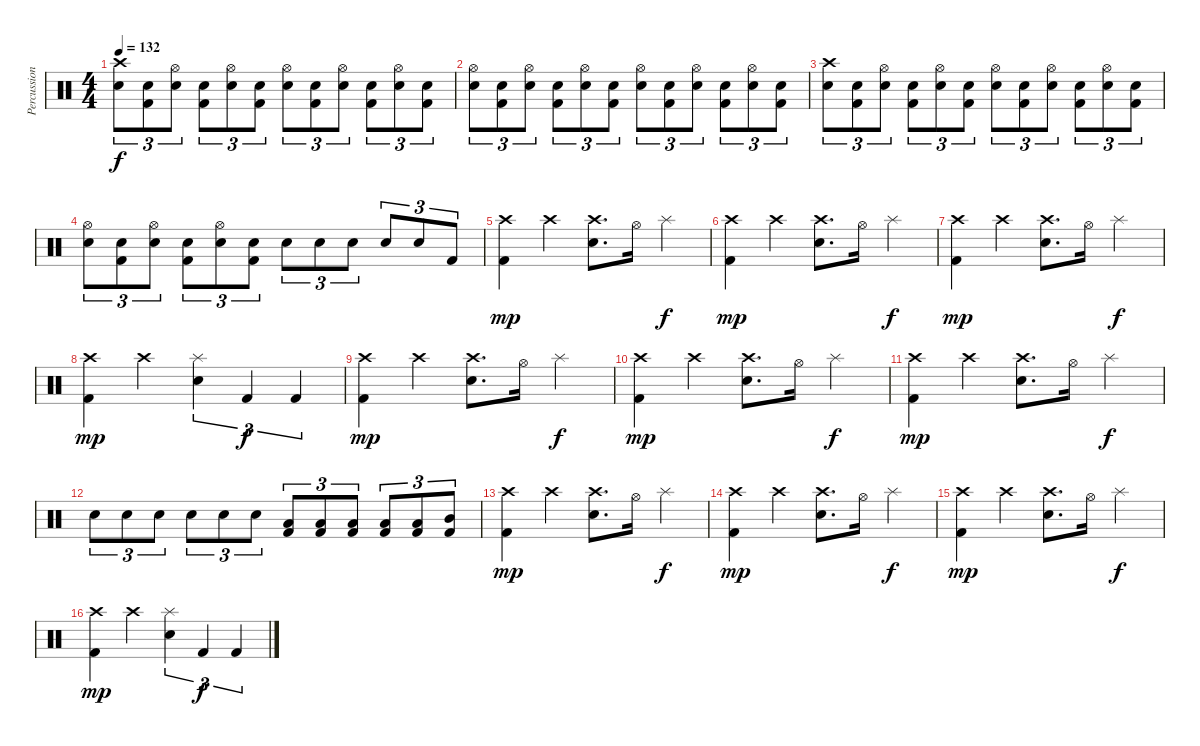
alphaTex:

\track ("Percussion" "Percussion") {instrument percussion}
\staff {score}
\articulation defaults
\ts (4 4)
\tempo 132
\clef neutral
\ks c
("Crash high (hit)" "Snare (hit) 2").8{tu (3 2) dy f} ("Snare (hit) 2" "Kick (hit) 2").8{tu (3 2)} ("Hi-Hat (open)" "Snare (hit) 2").8{tu (3 2)} ("Snare (hit) 2" "Kick (hit) 2").8{tu (3 2)} ("Hi-Hat (open)" "Snare (hit) 2").8{tu (3 2)} ("Snare (hit) 2" "Kick (hit) 2").8{tu (3 2)} ("Hi-Hat (open)" "Snare (hit) 2").8{tu (3 2)} ("Snare (hit) 2" "Kick (hit) 2").8{tu (3 2)} ("Hi-Hat (open)" "Snare (hit) 2").8{tu (3 2)} ("Snare (hit) 2" "Kick (hit) 2").8{tu (3 2)} ("Hi-Hat (open)" "Snare (hit) 2").8{tu (3 2)} ("Snare (hit) 2" "Kick (hit) 2").8{tu (3 2)} |
("Hi-Hat (open)" "Snare (hit) 2").8{tu (3 2)} ("Snare (hit) 2" "Kick (hit) 2").8{tu (3 2)} ("Hi-Hat (open)" "Snare (hit) 2").8{tu (3 2)} ("Snare (hit) 2" "Kick (hit) 2").8{tu (3 2)} ("Hi-Hat (open)" "Snare (hit) 2").8{tu (3 2)} ("Snare (hit) 2" "Kick (hit) 2").8{tu (3 2)} ("Hi-Hat (open)" "Snare (hit) 2").8{tu (3 2)} ("Snare (hit) 2" "Kick (hit) 2").8{tu (3 2)} ("Hi-Hat (open)" "Snare (hit) 2").8{tu (3 2)} ("Snare (hit) 2" "Kick (hit) 2").8{tu (3 2)} ("Hi-Hat (open)" "Snare (hit) 2").8{tu (3 2)} ("Snare (hit) 2" "Kick (hit) 2").8{tu (3 2)} |
("Crash high (hit)" "Snare (hit) 2").8{tu (3 2)} ("Snare (hit) 2" "Kick (hit) 2").8{tu (3 2)} ("Hi-Hat (open)" "Snare (hit) 2").8{tu (3 2)} ("Snare (hit) 2" "Kick (hit) 2").8{tu (3 2)} ("Hi-Hat (open)" "Snare (hit) 2").8{tu (3 2)} ("Snare (hit) 2" "Kick (hit) 2").8{tu (3 2)} ("Hi-Hat (open)" "Snare (hit) 2").8{tu (3 2)} ("Snare (hit) 2" "Kick (hit) 2").8{tu (3 2)} ("Hi-Hat (open)" "Snare (hit) 2").8{tu (3 2)} ("Snare (hit) 2" "Kick (hit) 2").8{tu (3 2)} ("Hi-Hat (open)" "Snare (hit) 2").8{tu (3 2)} ("Snare (hit) 2" "Kick (hit) 2").8{tu (3 2)} |
("Hi-Hat (open)" "Snare (hit) 2").8{tu (3 2)} ("Snare (hit) 2" "Kick (hit) 2").8{tu (3 2)} ("Hi-Hat (open)" "Snare (hit) 2").8{tu (3 2)} ("Snare (hit) 2" "Kick (hit) 2").8{tu (3 2)} ("Hi-Hat (open)" "Snare (hit) 2").8{tu (3 2)} ("Snare (hit) 2" "Kick (hit) 2").8{tu (3 2)} "Snare (hit) 2".8{tu (3 2)} "Snare (hit) 2".8{tu (3 2)} "Snare (hit) 2".8{tu (3 2)} "Snare (hit) 2".8{tu (3 2)} "Snare (hit) 2".8{tu (3 2)} "Kick (hit) 2".8{tu (3 2)} |
("Crash high (hit)" "Kick (hit) 2").4{dy mp} "Crash high (hit)".4 ("Crash high (hit)" "Snare (hit) 2").8{d} "Hi-Hat (open)".16 "Splash (hit)".4{dy f} |
("Crash high (hit)" "Kick (hit) 2").4{dy mp} "Crash high (hit)".4 ("Crash high (hit)" "Snare (hit) 2").8{d} "Hi-Hat (open)".16 "Splash (hit)".4{dy f} |
("Crash high (hit)" "Kick (hit) 2").4{dy mp} "Crash high (hit)".4 ("Crash high (hit)" "Snare (hit) 2").8{d} "Hi-Hat (open)".16 "Splash (hit)".4{dy f} |
("Crash high (hit)" "Kick (hit) 2").4{dy mp} "Crash high (hit)".4 ("Splash (hit)" "Snare (hit) 2").4{tu (3 2)} "Kick (hit) 2".4{tu (3 2) dy f} "Kick (hit) 2".4{tu (3 2)} |
("Crash high (hit)" "Kick (hit) 2").4{dy mp} "Crash high (hit)".4 ("Crash high (hit)" "Snare (hit) 2").8{d} "Hi-Hat (open)".16 "Splash (hit)".4{dy f} |
("Crash high (hit)" "Kick (hit) 2").4{dy mp} "Crash high (hit)".4 ("Crash high (hit)" "Snare (hit) 2").8{d} "Hi-Hat (open)".16 "Splash (hit)".4{dy f} |
("Crash high (hit)" "Kick (hit) 2").4{dy mp} "Crash high (hit)".4 ("Crash high (hit)" "Snare (hit) 2").8{d} "Hi-Hat (open)".16 "Splash (hit)".4{dy f} |
"Snare (hit) 2".8{tu (3 2)} "Snare (hit) 2".8{tu (3 2)} "Snare (hit) 2".8{tu (3 2)} "Snare (hit) 2".8{tu (3 2)} "Snare (hit) 2".8{tu (3 2)} "Snare (hit) 2".8{tu (3 2)} ("Low Tom (hit)" "Kick (hit) 2").8{tu (3 2)} ("Low Tom (hit)" "Kick (hit) 2").8{tu (3 2)} ("Low Tom (hit)" "Kick (hit) 2").8{tu (3 2)} ("Low Tom (hit)" "Kick (hit) 2").8{tu (3 2)} ("Low Tom (hit)" "Kick (hit) 2").8{tu (3 2)} ("Mid Tom (hit)" "Kick (hit) 2").8{tu (3 2)} |
("Crash high (hit)" "Kick (hit) 2").4{dy mp} "Crash high (hit)".4 ("Crash high (hit)" "Snare (hit) 2").8{d} "Hi-Hat (open)".16 "Splash (hit)".4{dy f} |
("Crash high (hit)" "Kick (hit) 2").4{dy mp} "Crash high (hit)".4 ("Crash high (hit)" "Snare (hit) 2").8{d} "Hi-Hat (open)".16 "Splash (hit)".4{dy f} |
("Crash high (hit)" "Kick (hit) 2").4{dy mp} "Crash high (hit)".4 ("Crash high (hit)" "Snare (hit) 2").8{d} "Hi-Hat (open)".16 "Splash (hit)".4{dy f} |
("Crash high (hit)" "Kick (hit) 2").4{dy mp} "Crash high (hit)".4 ("Splash (hit)" "Snare (hit) 2").4{tu (3 2)} "Kick (hit) 2".4{tu (3 2) dy f} "Kick (hit) 2".4{tu (3 2)}
